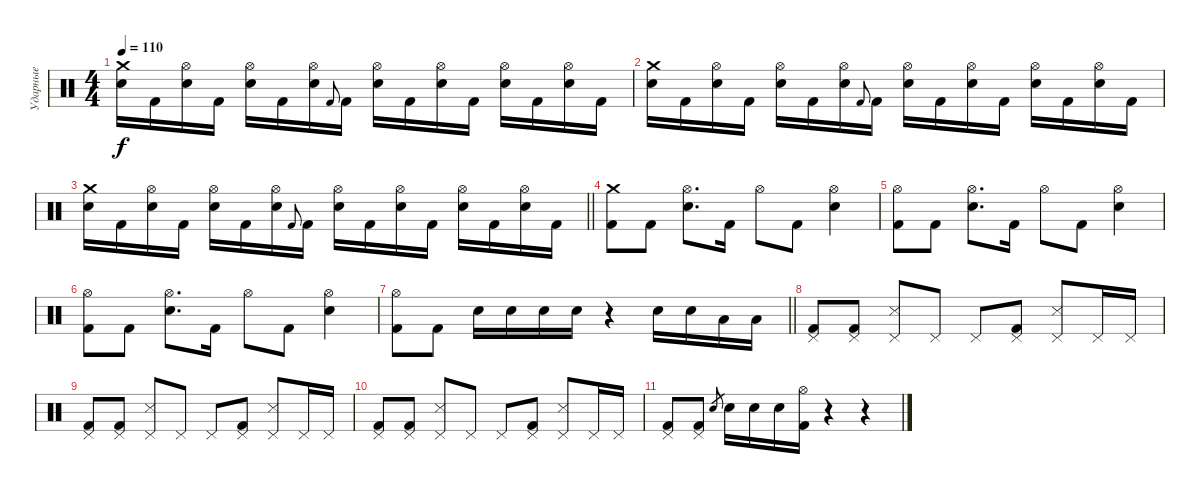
\track ("Ударные" "Ударные") {instrument percussion}
\staff {score}
\articulation defaults
\ts (4 4)
\tempo 110
\clef neutral
\ks c
("Crash medium (hit)" "Snare (hit) 2").16{dy f} "Kick (hit) 2".16 ("Hi-Hat (open)" "Snare (hit) 2").16 "Kick (hit) 2".16 ("Hi-Hat (open)" "Snare (hit) 2").16 "Kick (hit) 2".16 ("Hi-Hat (open)" "Snare (hit) 2").16 "Kick (hit) 2".8{gr onbeat} "Kick (hit) 2".16 ("Hi-Hat (open)" "Snare (hit) 2").16 "Kick (hit) 2".16 ("Hi-Hat (open)" "Snare (hit) 2").16 "Kick (hit) 2".16 ("Hi-Hat (open)" "Snare (hit) 2").16 "Kick (hit) 2".16 ("Snare (hit) 2" "Hi-Hat (open)").16 "Kick (hit) 2".16 |
("Crash medium (hit)" "Snare (hit) 2").16 "Kick (hit) 2".16 ("Hi-Hat (open)" "Snare (hit) 2").16 "Kick (hit) 2".16 ("Hi-Hat (open)" "Snare (hit) 2").16 "Kick (hit) 2".16 ("Hi-Hat (open)" "Snare (hit) 2").16 "Kick (hit) 2".8{gr onbeat} "Kick (hit) 2".16 ("Hi-Hat (open)" "Snare (hit) 2").16 "Kick (hit) 2".16 ("Hi-Hat (open)" "Snare (hit) 2").16 "Kick (hit) 2".16 ("Hi-Hat (open)" "Snare (hit) 2").16 "Kick (hit) 2".16 ("Snare (hit) 2" "Hi-Hat (open)").16 "Kick (hit) 2".16 |
\barLineRight lightlight
("Crash medium (hit)" "Snare (hit) 2").16 "Kick (hit) 2".16 ("Hi-Hat (open)" "Snare (hit) 2").16 "Kick (hit) 2".16 ("Hi-Hat (open)" "Snare (hit) 2").16 "Kick (hit) 2".16 ("Hi-Hat (open)" "Snare (hit) 2").16 "Kick (hit) 2".8{gr onbeat} "Kick (hit) 2".16 ("Hi-Hat (open)" "Snare (hit) 2").16 "Kick (hit) 2".16 ("Hi-Hat (open)" "Snare (hit) 2").16 "Kick (hit) 2".16 ("Hi-Hat (open)" "Snare (hit) 2").16 "Kick (hit) 2".16 ("Snare (hit) 2" "Hi-Hat (open)").16 "Kick (hit) 2".16 |
("Crash medium (hit)" "Kick (hit) 2").8 "Kick (hit) 2".8 ("Hi-Hat (open)" "Snare (hit) 2").8{d} "Kick (hit) 2".16 "Hi-Hat (open)".8 "Kick (hit) 2".8 ("Hi-Hat (open)" "Snare (hit) 2").4 |
("Hi-Hat (open)" "Kick (hit) 2").8 "Kick (hit) 2".8 ("Hi-Hat (open)" "Snare (hit) 2").8{d} "Kick (hit) 2".16 "Hi-Hat (open)".8 "Kick (hit) 2".8 ("Hi-Hat (open)" "Snare (hit) 2").4 |
("Hi-Hat (open)" "Kick (hit) 2").8 "Kick (hit) 2".8 ("Hi-Hat (open)" "Snare (hit) 2").8{d} "Kick (hit) 2".16 "Hi-Hat (open)".8 "Kick (hit) 2".8 ("Hi-Hat (open)" "Snare (hit) 2").4 |
\barLineRight lightlight
("Hi-Hat (open)" "Kick (hit) 2").8 "Kick (hit) 2".8 "Snare (hit) 2".16 "Snare (hit) 2".16 "Snare (hit) 2".16 "Snare (hit) 2".16 r.4 "Snare (hit) 2".16 "Snare (hit) 2".16 "Low Tom (hit)".16 "Low Floor Tom (hit)".16 |
("Kick (hit) 2" "Pedal Hi-Hat (hit)").8 ("Kick (hit) 2" "Pedal Hi-Hat (hit)").8 ("Snare (side stick) 3" "Pedal Hi-Hat (hit)").8 "Pedal Hi-Hat (hit)".8 "Pedal Hi-Hat (hit)".8 ("Kick (hit) 2" "Pedal Hi-Hat (hit)").8 ("Snare (side stick) 3" "Pedal Hi-Hat (hit)").8 "Pedal Hi-Hat (hit)".16 "Pedal Hi-Hat (hit)".16 |
("Kick (hit) 2" "Pedal Hi-Hat (hit)").8 ("Kick (hit) 2" "Pedal Hi-Hat (hit)").8 ("Snare (side stick) 3" "Pedal Hi-Hat (hit)").8 "Pedal Hi-Hat (hit)".8 "Pedal Hi-Hat (hit)".8 ("Kick (hit) 2" "Pedal Hi-Hat (hit)").8 ("Snare (side stick) 3" "Pedal Hi-Hat (hit)").8 "Pedal Hi-Hat (hit)".16 "Pedal Hi-Hat (hit)".16 |
("Kick (hit) 2" "Pedal Hi-Hat (hit)").8 ("Kick (hit) 2" "Pedal Hi-Hat (hit)").8 ("Snare (side stick) 3" "Pedal Hi-Hat (hit)").8 "Pedal Hi-Hat (hit)".8 "Pedal Hi-Hat (hit)".8 ("Kick (hit) 2" "Pedal Hi-Hat (hit)").8 ("Snare (side stick) 3" "Pedal Hi-Hat (hit)").8 "Pedal Hi-Hat (hit)".16 "Pedal Hi-Hat (hit)".16 |
("Kick (hit) 2" "Pedal Hi-Hat (hit)").8 ("Kick (hit) 2" "Pedal Hi-Hat (hit)").8 "Snare (hit) 2".8{gr} "Snare (hit) 2".16 "Snare (hit) 2".16 "Snare (hit) 2".16 ("Kick (hit) 2" "Hi-Hat (open)").16 r.4 r.4
